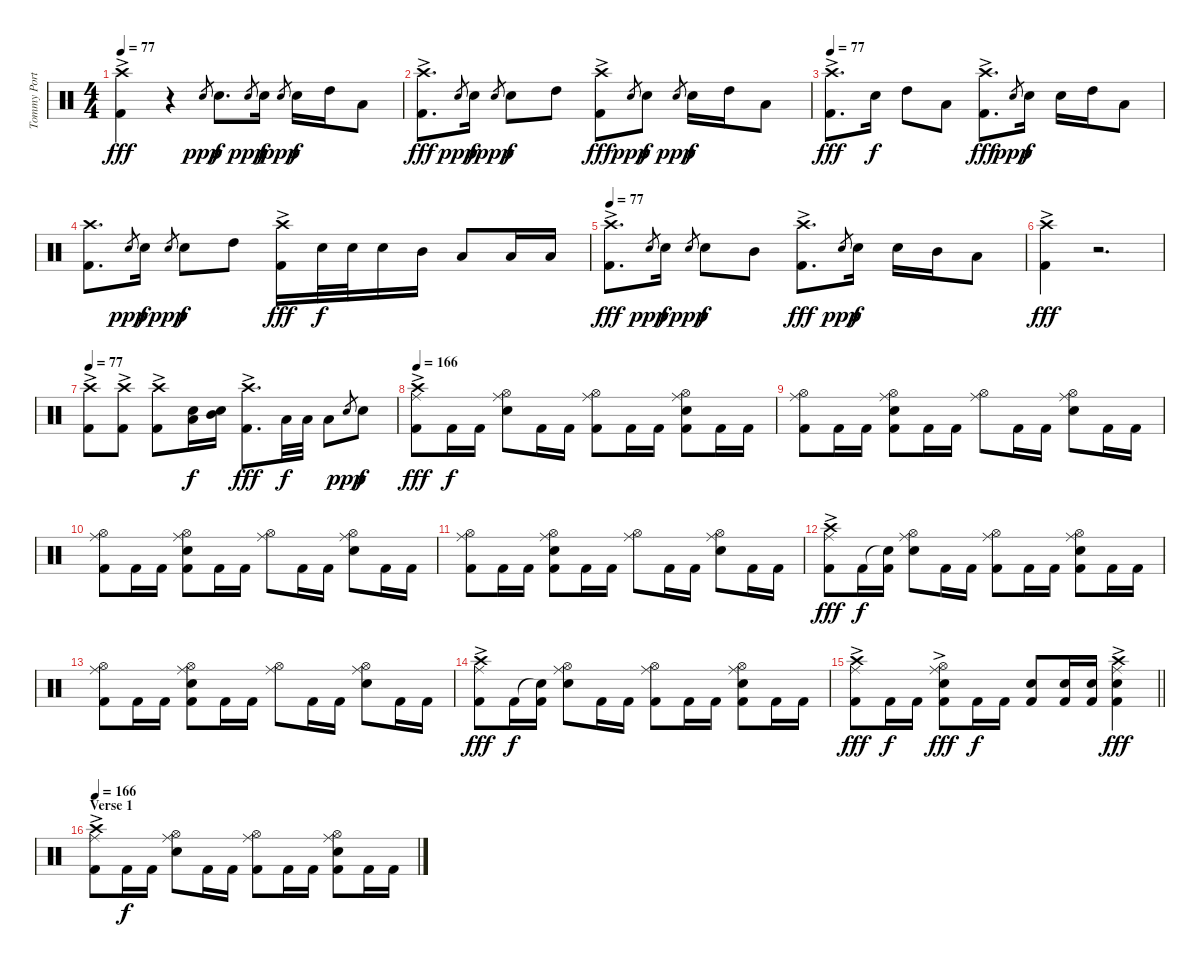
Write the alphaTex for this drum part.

\track ("Tommy Portimo" "Tommy Port") {instrument percussion}
\staff {score}
\articulation defaults
\ts (4 4)
\tempo 77
\clef neutral
\ks c
("Crash high (hit)"{ac} "Kick (hit) 2").4{dy fff} r.4 "Electric Snare (hit)"{h}.8{gr dy ppp} "Electric Snare (hit)".8{d dy f} "Electric Snare (hit)"{h}.8{gr dy ppp} "Electric Snare (hit)".16{dy f} "Electric Snare (hit)"{h}.8{gr dy ppp} "Electric Snare (hit)".16{dy f} "High Tom (hit)".16 "Low Tom (hit)".8 |
("Crash high (hit)"{ac} "Kick (hit) 2").8{d dy fff} "Electric Snare (hit)"{h}.8{gr dy ppp} "Electric Snare (hit)".16{dy f} "Electric Snare (hit)".8{gr dy ppp} "Electric Snare (hit)".8{dy f} "High Tom (hit)".8 ("Crash high (hit)"{ac} "Kick (hit) 2").8{dy fff} "Electric Snare (hit)"{h}.8{gr dy ppp} "Electric Snare (hit)".8{dy f} "Electric Snare (hit)"{h}.8{gr dy ppp} "Electric Snare (hit)".16{dy f} "High Tom (hit)".16 "Low Tom (hit)".8 |
\tempo 77
("Crash high (hit)"{ac} "Kick (hit) 2").8{d dy fff} "Electric Snare (hit)".16{dy f} "High Tom (hit)".8 "Low Tom (hit)".8 ("Crash high (hit)"{ac} "Kick (hit) 2").8{d dy fff} "Electric Snare (hit)"{h}.8{gr dy ppp} "Electric Snare (hit)".16{dy f} "Electric Snare (hit)".16 "High Tom (hit)".16 "Low Tom (hit)".8 |
("Crash high (hit)" "Kick (hit) 2").8{d} "Electric Snare (hit)"{h}.8{gr dy ppp} "Electric Snare (hit)".16{dy f} "Electric Snare (hit)"{h}.8{gr dy ppp} "Electric Snare (hit)".8{dy f} "High Tom (hit)".8 ("Crash high (hit)"{ac} "Kick (hit) 2").16{dy fff} "Electric Snare (hit)".32{dy f} "Electric Snare (hit)".32 "Electric Snare (hit)".16 "Mid Tom (hit)".16 "Low Tom (hit)".8 "Low Floor Tom (hit)".16 "Low Floor Tom (hit)".16 |
\tempo 77
("Crash high (hit)"{ac} "Kick (hit) 2").8{d dy fff} "Electric Snare (hit)"{h}.8{gr dy ppp} "Electric Snare (hit)".16{dy f} "Electric Snare (hit)"{h}.8{gr dy ppp} "Electric Snare (hit)".8{dy f} "Mid Tom (hit)".8 ("Crash high (hit)"{ac} "Kick (hit) 2").8{d dy fff} "Electric Snare (hit)"{h}.8{gr dy ppp} "Electric Snare (hit)".16{dy f} "Electric Snare (hit)".16 "Mid Tom (hit)".16 "Low Tom (hit)".8 |
("Crash high (hit)"{ac} "Kick (hit) 2").4{dy fff} r.2{d} |
\tempo 77
("Crash high (hit)"{ac} "Kick (hit) 2").8 ("Crash high (hit)"{ac} "Kick (hit) 2").8 ("Crash high (hit)"{ac} "Kick (hit) 2").8 ("Low Tom (hit)" "Electric Snare (hit)").16{dy f} ("Mid Tom (hit)" "Electric Snare (hit)").16 ("Crash high (hit)"{ac} "Kick (hit) 2").8{d dy fff} "Low Tom (hit)".32{dy f} "Low Tom (hit)".32 "Low Tom (hit)".8 "Electric Snare (hit)"{h}.8{gr dy ppp} "Electric Snare (hit)".8{dy f} |
\tempo 166
("Crash high (hit)"{ac} "Ride (middle)" "Kick (hit) 2").8{dy fff} "Kick (hit) 2".16{dy f} "Kick (hit) 2".16 ("Hi-Hat (open)" "Ride (middle)" "Electric Snare (hit)").8 "Kick (hit) 2".16 "Kick (hit) 2".16 ("Hi-Hat (open)" "Ride (middle)" "Kick (hit) 2").8 "Kick (hit) 2".16 "Kick (hit) 2".16 ("Hi-Hat (open)" "Ride (middle)" "Electric Snare (hit)" "Kick (hit) 2").8 "Kick (hit) 2".16 "Kick (hit) 2".16 |
("Hi-Hat (open)" "Ride (middle)" "Kick (hit) 2").8 "Kick (hit) 2".16 "Kick (hit) 2".16 ("Hi-Hat (open)" "Ride (middle)" "Electric Snare (hit)" "Kick (hit) 2").8 "Kick (hit) 2".16 "Kick (hit) 2".16 ("Hi-Hat (open)" "Ride (middle)").8 "Kick (hit) 2".16 "Kick (hit) 2".16 ("Hi-Hat (open)" "Ride (middle)" "Electric Snare (hit)").8 "Kick (hit) 2".16 "Kick (hit) 2".16 |
("Hi-Hat (open)" "Ride (middle)" "Kick (hit) 2").8 "Kick (hit) 2".16 "Kick (hit) 2".16 ("Hi-Hat (open)" "Ride (middle)" "Electric Snare (hit)" "Kick (hit) 2").8 "Kick (hit) 2".16 "Kick (hit) 2".16 ("Hi-Hat (open)" "Ride (middle)").8 "Kick (hit) 2".16 "Kick (hit) 2".16 ("Hi-Hat (open)" "Ride (middle)" "Electric Snare (hit)").8 "Kick (hit) 2".16 "Kick (hit) 2".16 |
("Hi-Hat (open)" "Ride (middle)" "Kick (hit) 2").8 "Kick (hit) 2".16 "Kick (hit) 2".16 ("Hi-Hat (open)" "Ride (middle)" "Electric Snare (hit)" "Kick (hit) 2").8 "Kick (hit) 2".16 "Kick (hit) 2".16 ("Hi-Hat (open)" "Ride (middle)").8 "Kick (hit) 2".16 "Kick (hit) 2".16 ("Hi-Hat (open)" "Ride (middle)" "Electric Snare (hit)").8 "Kick (hit) 2".16 "Kick (hit) 2".16 |
("Crash high (hit)"{ac} "Ride (middle)" "Kick (hit) 2").8{dy fff} "Kick (hit) 2".16{dy f} ("Snare (hit)"{t} "Kick (hit) 2").16 ("Hi-Hat (open)" "Ride (middle)" "Electric Snare (hit)").8 "Kick (hit) 2".16 "Kick (hit) 2".16 ("Hi-Hat (open)" "Ride (middle)" "Kick (hit) 2").8 "Kick (hit) 2".16 "Kick (hit) 2".16 ("Hi-Hat (open)" "Ride (middle)" "Electric Snare (hit)" "Kick (hit) 2").8 "Kick (hit) 2".16 "Kick (hit) 2".16 |
("Hi-Hat (open)" "Ride (middle)" "Kick (hit) 2").8 "Kick (hit) 2".16 "Kick (hit) 2".16 ("Hi-Hat (open)" "Ride (middle)" "Electric Snare (hit)" "Kick (hit) 2").8 "Kick (hit) 2".16 "Kick (hit) 2".16 ("Hi-Hat (open)" "Ride (middle)").8 "Kick (hit) 2".16 "Kick (hit) 2".16 ("Hi-Hat (open)" "Ride (middle)" "Electric Snare (hit)").8 "Kick (hit) 2".16 "Kick (hit) 2".16 |
("Crash high (hit)"{ac} "Ride (middle)" "Kick (hit) 2").8{dy fff} "Kick (hit) 2".16{dy f} ("Snare (hit)"{t} "Kick (hit) 2").16 ("Hi-Hat (open)" "Ride (middle)" "Electric Snare (hit)").8 "Kick (hit) 2".16 "Kick (hit) 2".16 ("Hi-Hat (open)" "Ride (middle)" "Kick (hit) 2").8 "Kick (hit) 2".16 "Kick (hit) 2".16 ("Hi-Hat (open)" "Ride (middle)" "Electric Snare (hit)" "Kick (hit) 2").8 "Kick (hit) 2".16 "Kick (hit) 2".16 |
\barLineRight lightlight
("Crash high (hit)"{ac} "Ride (middle)" "Kick (hit) 2").8{dy fff} "Kick (hit) 2".16{dy f} "Kick (hit) 2".16 ("Hi-Hat (open)" "Ride (middle)" "Electric Snare (hit)"{ac} "Kick (hit) 2").8{dy fff} "Kick (hit) 2".16{dy f} "Kick (hit) 2".16 ("Electric Snare (hit)" "Kick (hit) 2").8 ("Electric Snare (hit)" "Kick (hit) 2").16 ("Electric Snare (hit)" "Kick (hit) 2").16 ("Crash high (hit)"{ac} "Ride (middle)" "Electric Snare (hit)"{ac} "Kick (hit) 2").4{dy fff} |
\section ("" "Verse 1")
\tempo 163
\tempo 166
("Crash high (hit)"{ac} "Ride (middle)" "Kick (hit) 2").8 "Kick (hit) 2".16{dy f} "Kick (hit) 2".16 ("Hi-Hat (open)" "Ride (middle)" "Electric Snare (hit)").8 "Kick (hit) 2".16 "Kick (hit) 2".16 ("Hi-Hat (open)" "Ride (middle)" "Kick (hit) 2").8 "Kick (hit) 2".16 "Kick (hit) 2".16 ("Hi-Hat (open)" "Ride (middle)" "Electric Snare (hit)" "Kick (hit) 2").8 "Kick (hit) 2".16 "Kick (hit) 2".16
